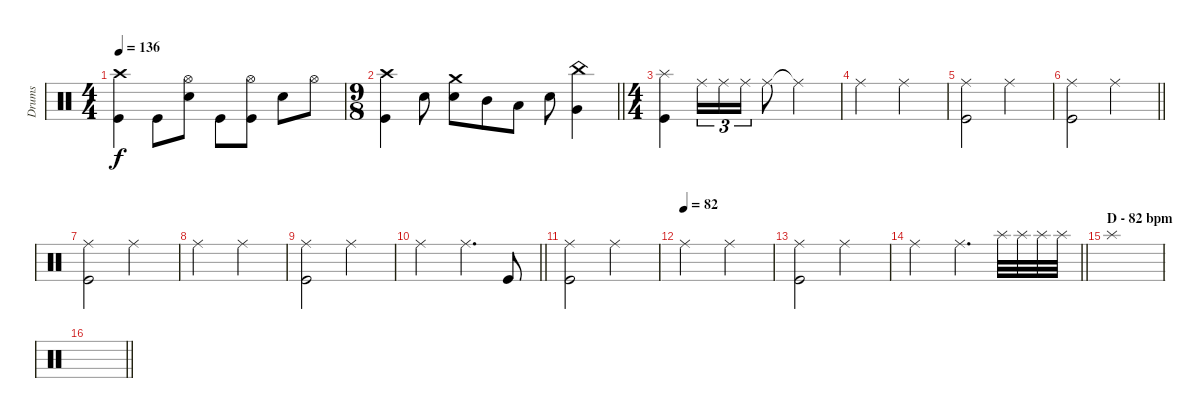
\track ("Drums" "Drums") {instrument percussion}
\staff
\articulation defaults
\ts (4 4)
\tempo 136
\clef neutral
\ks c
("Crash high (hit)" "Kick (hit)").4{dy f} "Kick (hit)".8 ("Hi-Hat (open)" "Electric Snare (hit)").8 "Kick (hit)".8 ("Hi-Hat (open)" "Kick (hit)").8 "Electric Snare (hit)".8 "Hi-Hat (open)".8 |
\ts (9 8)
\barLineRight lightlight
("Crash high (hit)" "Kick (hit)").4 "Electric Snare (hit)".8 ("Crash medium (hit)" "Electric Snare (hit)").8 "Mid Tom (hit)".8 "Low Tom (hit)".8 "Electric Snare (hit)".8 ("China (hit)" "Very Low Tom (hit)").4 |
\ts (4 4)
\section ("" "")
("Splash (hit)" "Kick (hit)").4 "Ride (middle)".16{tu (3 2)} "Ride (middle)".16{tu (3 2)} "Ride (middle)".16{tu (3 2)} "Ride (middle)".8 "Ride (middle)"{t}.2 |
"Ride (middle)".2 "Ride (middle)".2 |
("Ride (middle)" "Kick (hit)").2 "Ride (middle)".2 |
\barLineRight lightlight
("Ride (middle)" "Kick (hit)").2 "Ride (middle)".2 |
("Ride (middle)" "Kick (hit)").2 "Ride (middle)".2 |
"Ride (middle)".2 "Ride (middle)".2 |
("Ride (middle)" "Kick (hit)").2 "Ride (middle)".2 |
\barLineRight lightlight "Ride (middle)".2 "Ride (middle)".4{d} "Kick (hit)".8
|
("Ride (middle)" "Kick (hit)").2 "Ride (middle)".2 |
\tempo (82)
"Ride (middle)".2 "Ride (middle)".2 |
("Ride (middle)" "Kick (hit)").2 "Ride (middle)".2 |
\barLineRight lightlight "Ride (middle)".2 "Ride (middle)".4{d} "Splash (hit)".32{volume 5} "Splash (hit)".32{volume 11} "Splash (hit)".32 "Splash (hit)".32
|
\section ("" "D - 82 bpm")
"Splash (hit)".1 |
\barLineRight lightlight
